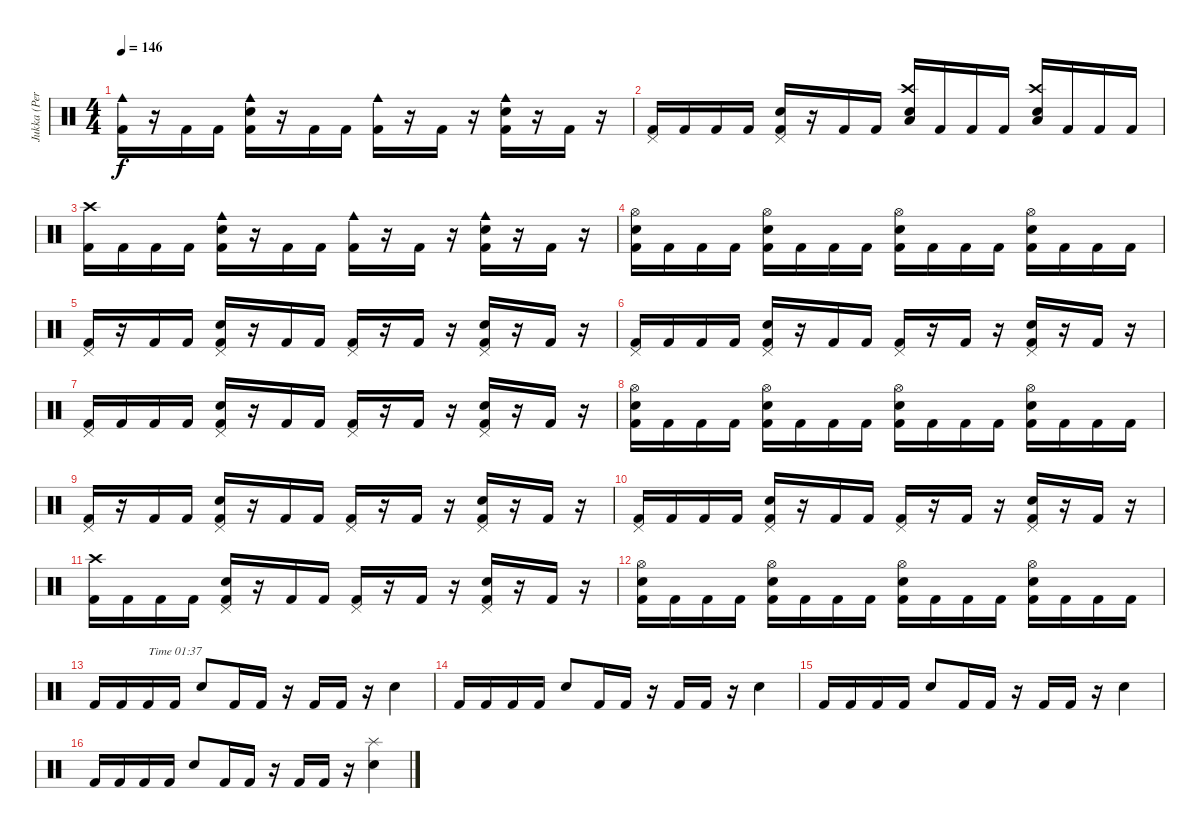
\track ("Jukka (Percussion)" "Jukka (Per") {instrument percussion}
\staff {score}
\articulation defaults
\ts (4 4)
\tempo 146
\clef neutral
\ks c
("Cowbell medium (hit)" "Kick (hit) 2").16{dy f} r.16 "Kick (hit) 2".16 "Kick (hit) 2".16 ("Cowbell medium (hit)" "Snare (hit) 2" "Kick (hit) 2").16 r.16 "Kick (hit) 2".16 "Kick (hit) 2".16 ("Cowbell medium (hit)" "Kick (hit) 2").16 r.16 "Kick (hit) 2".16 r.16 ("Cowbell medium (hit)" "Snare (hit) 2" "Kick (hit) 2").16 r.16 "Kick (hit) 2".16 r.16 |
("Pedal Hi-Hat (hit)" "Kick (hit) 2").16 "Kick (hit) 2".16 "Kick (hit) 2".16 "Kick (hit) 2".16 ("Pedal Hi-Hat (hit)" "Snare (hit) 2" "Kick (hit) 2").16 r.16 "Kick (hit) 2".16 "Kick (hit) 2".16 ("Crash high (hit)" "Snare (hit) 2" "Low Tom (hit)").16 "Kick (hit) 2".16 "Kick (hit) 2".16 "Kick (hit) 2".16 ("Crash high (hit)" "Snare (hit) 2" "Low Tom (hit)").16 "Kick (hit) 2".16 "Kick (hit) 2".16 "Kick (hit) 2".16 |
("Crash high (hit)" "Kick (hit) 2").16 "Kick (hit) 2".16 "Kick (hit) 2".16 "Kick (hit) 2".16 ("Cowbell medium (hit)" "Snare (hit) 2" "Kick (hit) 2").16 r.16 "Kick (hit) 2".16 "Kick (hit) 2".16 ("Cowbell medium (hit)" "Kick (hit) 2").16 r.16 "Kick (hit) 2".16 r.16 ("Cowbell medium (hit)" "Snare (hit) 2" "Kick (hit) 2").16 r.16 "Kick (hit) 2".16 r.16 |
("Hi-Hat (open)" "Snare (hit) 2" "Kick (hit) 2").16 "Kick (hit) 2".16 "Kick (hit) 2".16 "Kick (hit) 2".16 ("Hi-Hat (open)" "Snare (hit) 2" "Kick (hit) 2").16 "Kick (hit) 2".16 "Kick (hit) 2".16 "Kick (hit) 2".16 ("Hi-Hat (open)" "Snare (hit) 2" "Kick (hit) 2").16 "Kick (hit) 2".16 "Kick (hit) 2".16 "Kick (hit) 2".16 ("Hi-Hat (open)" "Snare (hit) 2" "Kick (hit) 2").16 "Kick (hit) 2".16 "Kick (hit) 2".16 "Kick (hit) 2".16 |
("Pedal Hi-Hat (hit)" "Kick (hit) 2").16 r.16 "Kick (hit) 2".16 "Kick (hit) 2".16 ("Pedal Hi-Hat (hit)" "Snare (hit) 2" "Kick (hit) 2").16 r.16 "Kick (hit) 2".16 "Kick (hit) 2".16 ("Pedal Hi-Hat (hit)" "Kick (hit) 2").16 r.16 "Kick (hit) 2".16 r.16 ("Pedal Hi-Hat (hit)" "Snare (hit) 2" "Kick (hit) 2").16 r.16 "Kick (hit) 2".16 r.16 |
("Pedal Hi-Hat (hit)" "Kick (hit) 2").16 "Kick (hit) 2".16 "Kick (hit) 2".16 "Kick (hit) 2".16 ("Pedal Hi-Hat (hit)" "Snare (hit) 2" "Kick (hit) 2").16 r.16 "Kick (hit) 2".16 "Kick (hit) 2".16 ("Pedal Hi-Hat (hit)" "Kick (hit) 2").16 r.16 "Kick (hit) 2".16 r.16 ("Pedal Hi-Hat (hit)" "Snare (hit) 2" "Kick (hit) 2").16 r.16 "Kick (hit) 2".16 r.16 |
("Pedal Hi-Hat (hit)" "Kick (hit) 2").16 "Kick (hit) 2".16 "Kick (hit) 2".16 "Kick (hit) 2".16 ("Pedal Hi-Hat (hit)" "Snare (hit) 2" "Kick (hit) 2").16 r.16 "Kick (hit) 2".16 "Kick (hit) 2".16 ("Pedal Hi-Hat (hit)" "Kick (hit) 2").16 r.16 "Kick (hit) 2".16 r.16 ("Pedal Hi-Hat (hit)" "Snare (hit) 2" "Kick (hit) 2").16 r.16 "Kick (hit) 2".16 r.16 |
("Hi-Hat (open)" "Snare (hit) 2" "Kick (hit) 2").16 "Kick (hit) 2".16 "Kick (hit) 2".16 "Kick (hit) 2".16 ("Hi-Hat (open)" "Snare (hit) 2" "Kick (hit) 2").16 "Kick (hit) 2".16 "Kick (hit) 2".16 "Kick (hit) 2".16 ("Hi-Hat (open)" "Snare (hit) 2" "Kick (hit) 2").16 "Kick (hit) 2".16 "Kick (hit) 2".16 "Kick (hit) 2".16 ("Hi-Hat (open)" "Snare (hit) 2" "Kick (hit) 2").16 "Kick (hit) 2".16 "Kick (hit) 2".16 "Kick (hit) 2".16 |
("Pedal Hi-Hat (hit)" "Kick (hit) 2").16 r.16 "Kick (hit) 2".16 "Kick (hit) 2".16 ("Pedal Hi-Hat (hit)" "Snare (hit) 2" "Kick (hit) 2").16 r.16 "Kick (hit) 2".16 "Kick (hit) 2".16 ("Pedal Hi-Hat (hit)" "Kick (hit) 2").16 r.16 "Kick (hit) 2".16 r.16 ("Pedal Hi-Hat (hit)" "Snare (hit) 2" "Kick (hit) 2").16 r.16 "Kick (hit) 2".16 r.16 |
("Pedal Hi-Hat (hit)" "Kick (hit) 2").16 "Kick (hit) 2".16 "Kick (hit) 2".16 "Kick (hit) 2".16 ("Pedal Hi-Hat (hit)" "Snare (hit) 2" "Kick (hit) 2").16 r.16 "Kick (hit) 2".16 "Kick (hit) 2".16 ("Pedal Hi-Hat (hit)" "Kick (hit) 2").16 r.16 "Kick (hit) 2".16 r.16 ("Pedal Hi-Hat (hit)" "Snare (hit) 2" "Kick (hit) 2").16 r.16 "Kick (hit) 2".16 r.16 |
("Crash high (hit)" "Kick (hit) 2").16 "Kick (hit) 2".16 "Kick (hit) 2".16 "Kick (hit) 2".16 ("Pedal Hi-Hat (hit)" "Snare (hit) 2" "Kick (hit) 2").16 r.16 "Kick (hit) 2".16 "Kick (hit) 2".16 ("Pedal Hi-Hat (hit)" "Kick (hit) 2").16 r.16 "Kick (hit) 2".16 r.16 ("Pedal Hi-Hat (hit)" "Snare (hit) 2" "Kick (hit) 2").16 r.16 "Kick (hit) 2".16 r.16 |
("Hi-Hat (open)" "Snare (hit) 2" "Kick (hit) 2").16 "Kick (hit) 2".16 "Kick (hit) 2".16 "Kick (hit) 2".16 ("Hi-Hat (open)" "Snare (hit) 2" "Kick (hit) 2").16 "Kick (hit) 2".16 "Kick (hit) 2".16 "Kick (hit) 2".16 ("Hi-Hat (open)" "Snare (hit) 2" "Kick (hit) 2").16 "Kick (hit) 2".16 "Kick (hit) 2".16 "Kick (hit) 2".16 ("Hi-Hat (open)" "Snare (hit) 2" "Kick (hit) 2").16 "Kick (hit) 2".16 "Kick (hit) 2".16 "Kick (hit) 2".16 |
"Kick (hit) 2".16 "Kick (hit) 2".16 "Kick (hit) 2".16{txt "Time 01:37"} "Kick (hit) 2".16 "Snare (hit) 2".8 "Kick (hit) 2".16 "Kick (hit) 2".16 r.16 "Kick (hit) 2".16 "Kick (hit) 2".16 r.16 "Snare (hit) 2".4 |
"Kick (hit) 2".16 "Kick (hit) 2".16 "Kick (hit) 2".16 "Kick (hit) 2".16 "Snare (hit) 2".8 "Kick (hit) 2".16 "Kick (hit) 2".16 r.16 "Kick (hit) 2".16 "Kick (hit) 2".16 r.16 "Snare (hit) 2".4 |
"Kick (hit) 2".16 "Kick (hit) 2".16 "Kick (hit) 2".16 "Kick (hit) 2".16 "Snare (hit) 2".8 "Kick (hit) 2".16 "Kick (hit) 2".16 r.16 "Kick (hit) 2".16 "Kick (hit) 2".16 r.16 "Snare (hit) 2".4 |
"Kick (hit) 2".16 "Kick (hit) 2".16 "Kick (hit) 2".16 "Kick (hit) 2".16 "Snare (hit) 2".8 "Kick (hit) 2".16 "Kick (hit) 2".16 r.16 "Kick (hit) 2".16 "Kick (hit) 2".16 r.16 ("Splash (hit)" "Snare (hit) 2").4
